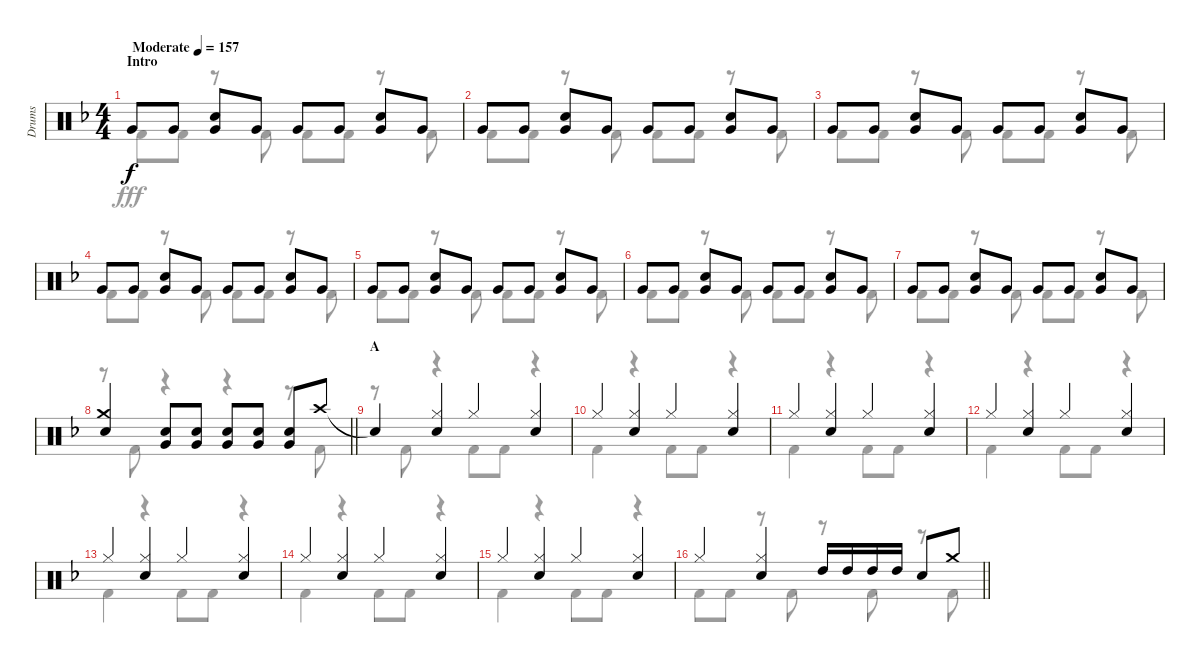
\track ("Drums" "Drums") {instrument percussion}
\staff {score}
\articulation defaults
\voice
\ts (4 4)
\section ("" "Intro")
\tempo (157 "Moderate")
\clef neutral
\ks f "Very Low Tom (hit)".8{dy f} "Very Low Tom (hit)".8
("Snare (hit) 2" "Very Low Tom (hit)").8 "Very Low Tom (hit)".8 "Very Low Tom (hit)".8 "Very Low Tom (hit)".8 ("Snare (hit) 2" "Very Low Tom (hit)").8 "Very Low Tom (hit)".8 |
"Very Low Tom (hit)".8 "Very Low Tom (hit)".8 ("Snare (hit) 2" "Very Low Tom (hit)").8 "Very Low Tom (hit)".8 "Very Low Tom (hit)".8 "Very Low Tom (hit)".8 ("Snare (hit) 2" "Very Low Tom (hit)").8 "Very Low Tom (hit)".8 |
"Very Low Tom (hit)".8 "Very Low Tom (hit)".8 ("Snare (hit) 2" "Very Low Tom (hit)").8 "Very Low Tom (hit)".8 "Very Low Tom (hit)".8 "Very Low Tom (hit)".8 ("Snare (hit) 2" "Very Low Tom (hit)").8 "Very Low Tom (hit)".8 |
"Very Low Tom (hit)".8 "Very Low Tom (hit)".8 ("Snare (hit) 2" "Very Low Tom (hit)").8 "Very Low Tom (hit)".8 "Very Low Tom (hit)".8 "Very Low Tom (hit)".8 ("Snare (hit) 2" "Very Low Tom (hit)").8 "Very Low Tom (hit)".8 |
"Very Low Tom (hit)".8 "Very Low Tom (hit)".8 ("Snare (hit) 2" "Very Low Tom (hit)").8 "Very Low Tom (hit)".8 "Very Low Tom (hit)".8 "Very Low Tom (hit)".8 ("Snare (hit) 2" "Very Low Tom (hit)").8 "Very Low Tom (hit)".8 |
"Very Low Tom (hit)".8 "Very Low Tom (hit)".8 ("Snare (hit) 2" "Very Low Tom (hit)").8 "Very Low Tom (hit)".8 "Very Low Tom (hit)".8 "Very Low Tom (hit)".8 ("Snare (hit) 2" "Very Low Tom (hit)").8 "Very Low Tom (hit)".8 |
"Very Low Tom (hit)".8 "Very Low Tom (hit)".8 ("Snare (hit) 2" "Very Low Tom (hit)").8 "Very Low Tom (hit)".8 "Very Low Tom (hit)".8 "Very Low Tom (hit)".8 ("Snare (hit) 2" "Very Low Tom (hit)").8 "Very Low Tom (hit)".8 |
\barLineRight lightlight
("Crash medium (hit)" "Snare (hit) 2").4 ("Snare (hit) 2" "Very Low Tom (hit)").8 ("Snare (hit) 2" "Very Low Tom (hit)").8 ("Snare (hit) 2" "Very Low Tom (hit)").8 ("Snare (hit) 2" "Very Low Tom (hit)").8 ("Snare (hit) 2" "Very Low Tom (hit)").8 "Crash high (hit)".8 |
\section ("" "A")
"Snare (hit)"{t}.4 ("Hi-Hat (closed)" "Snare (hit) 2").4 "Hi-Hat (closed)".4 ("Hi-Hat (closed)" "Snare (hit) 2").4 |
"Hi-Hat (closed)".4 ("Hi-Hat (closed)" "Snare (hit) 2").4 "Hi-Hat (closed)".4 ("Hi-Hat (closed)" "Snare (hit) 2").4 |
"Hi-Hat (closed)".4 ("Hi-Hat (closed)" "Snare (hit) 2").4 "Hi-Hat (closed)".4 ("Hi-Hat (closed)" "Snare (hit) 2").4 |
"Hi-Hat (closed)".4 ("Hi-Hat (closed)" "Snare (hit) 2").4 "Hi-Hat (closed)".4 ("Hi-Hat (closed)" "Snare (hit) 2").4 |
"Hi-Hat (closed)".4 ("Hi-Hat (closed)" "Snare (hit) 2").4 "Hi-Hat (closed)".4 ("Hi-Hat (closed)" "Snare (hit) 2").4 |
"Hi-Hat (closed)".4 ("Hi-Hat (closed)" "Snare (hit) 2").4 "Hi-Hat (closed)".4 ("Hi-Hat (closed)" "Snare (hit) 2").4 |
"Hi-Hat (closed)".4 ("Hi-Hat (closed)" "Snare (hit) 2").4 "Hi-Hat (closed)".4 ("Hi-Hat (closed)" "Snare (hit) 2").4 |
\barLineRight lightlight "Hi-Hat (closed)".4
("Hi-Hat (closed)" "Snare (hit) 2").4 "High Tom (hit)".16 "High Tom (hit)".16 "High Tom (hit)".16 "High Tom (hit)".16 "Snare (hit) 2".8 "Crash medium (hit)".8
\voice
\clef neutral
\ottava regular
\simile none
\ks f "Kick (hit) 2".8{dy fff} "Kick (hit) 2".8
r.8 "Kick (hit) 2".8 "Kick (hit) 2".8 "Kick (hit) 2".8 r.8 "Kick (hit) 2".8 |
"Kick (hit) 2".8 "Kick (hit) 2".8 r.8 "Kick (hit) 2".8 "Kick (hit) 2".8 "Kick (hit) 2".8 r.8 "Kick (hit) 2".8 |
"Kick (hit) 2".8 "Kick (hit) 2".8 r.8 "Kick (hit) 2".8 "Kick (hit) 2".8 "Kick (hit) 2".8 r.8 "Kick (hit) 2".8 |
"Kick (hit) 2".8 "Kick (hit) 2".8 r.8 "Kick (hit) 2".8 "Kick (hit) 2".8 "Kick (hit) 2".8 r.8 "Kick (hit) 2".8 |
"Kick (hit) 2".8 "Kick (hit) 2".8 r.8 "Kick (hit) 2".8 "Kick (hit) 2".8 "Kick (hit) 2".8 r.8 "Kick (hit) 2".8 |
"Kick (hit) 2".8 "Kick (hit) 2".8 r.8 "Kick (hit) 2".8 "Kick (hit) 2".8 "Kick (hit) 2".8 r.8 "Kick (hit) 2".8 |
"Kick (hit) 2".8 "Kick (hit) 2".8 r.8 "Kick (hit) 2".8 "Kick (hit) 2".8 "Kick (hit) 2".8 r.8 "Kick (hit) 2".8 |
\barLineRight lightlight
r.8 "Kick (hit) 2".8 r.4 r.4 r.8 "Kick (hit) 2".8 |
r.8 "Kick (hit) 2".8 r.4 "Kick (hit) 2".8 "Kick (hit) 2".8 r.4 |
"Kick (hit) 2".4 r.4 "Kick (hit) 2".8 "Kick (hit) 2".8 r.4 |
"Kick (hit) 2".4 r.4 "Kick (hit) 2".8 "Kick (hit) 2".8 r.4 |
"Kick (hit) 2".4 r.4 "Kick (hit) 2".8 "Kick (hit) 2".8 r.4 |
"Kick (hit) 2".4 r.4 "Kick (hit) 2".8 "Kick (hit) 2".8 r.4 |
"Kick (hit) 2".4 r.4 "Kick (hit) 2".8 "Kick (hit) 2".8 r.4 |
"Kick (hit) 2".4 r.4 "Kick (hit) 2".8 "Kick (hit) 2".8 r.4 |
\barLineRight lightlight "Kick (hit) 2".8 "Kick (hit) 2".8
r.8 "Kick (hit) 2".8 r.8 "Kick (hit) 2".8 r.8 "Kick (hit) 2".8
